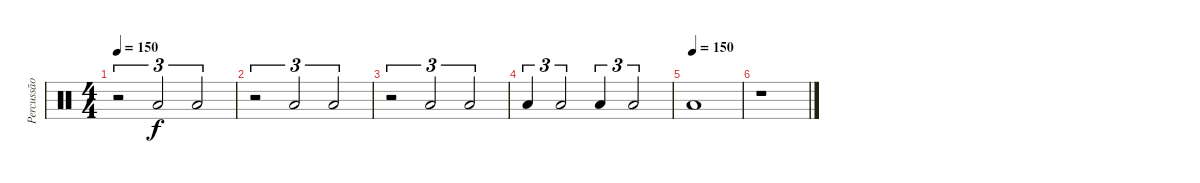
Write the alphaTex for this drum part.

\track ("Percussão" "Percussão") {instrument percussion}
\staff {score}
\articulation defaults
\ts (4 4)
\tempo 150
\clef neutral
\ks c
r.2{tu (3 2) dy f} "Low Tom (hit)".2{tu (3 2)} "Low Tom (hit)".2{tu (3 2)} |
r.2{tu (3 2)} "Low Tom (hit)".2{tu (3 2)} "Low Tom (hit)".2{tu (3 2)} |
r.2{tu (3 2)} "Low Tom (hit)".2{tu (3 2)} "Low Tom (hit)".2{tu (3 2)} |
"Low Tom (hit)".4{tu (3 2)} "Low Tom (hit)".2{tu (3 2)} "Low Tom (hit)".4{tu (3 2)} "Low Tom (hit)".2{tu (3 2)} |
\tempo (150)
"Low Tom (hit)".1 |
r.1
